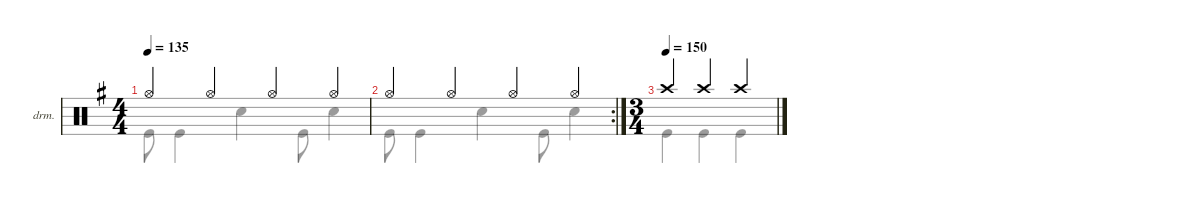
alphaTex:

\defaultSystemsLayout 4
\hideDynamics
\bracketExtendMode nobrackets
\firstSystemTrackNameOrientation horizontal
\otherSystemsTrackNameOrientation horizontal
\track ("Drumkit" "drm.") {instrument percussion}
\staff {score}
\articulation defaults
\voice
\ts (4 4)
\tempo 135
\clef neutral
\ks eminor "Hi-Hat (open)".4{dy mf} "Hi-Hat (open)".4 "Hi-Hat (open)".4 "Hi-Hat (open)".4
|
\rc 2 "Hi-Hat (open)".4 "Hi-Hat (open)".4 "Hi-Hat (open)".4 "Hi-Hat (open)".4
|
\ts (3 4)
\beaming (8 2 2 2)
\tempo (150)
"Crash high (hit)".4 "Crash high (hit)".4 "Crash high (hit)".4 |
|
|
|
\voice
\clef neutral
\ottava regular
\simile none
\ks eminor "Kick (hit)".8{dy mf} "Kick (hit)".4 "Snare (hit) 2".4 "Kick (hit)".8 "Snare (hit) 2".4
|
"Kick (hit)".8 "Kick (hit)".4 "Snare (hit) 2".4 "Kick (hit)".8 "Snare (hit) 2".4 |
"Kick (hit)".4 "Kick (hit)".4 "Kick (hit)".4 |
|
|
|
